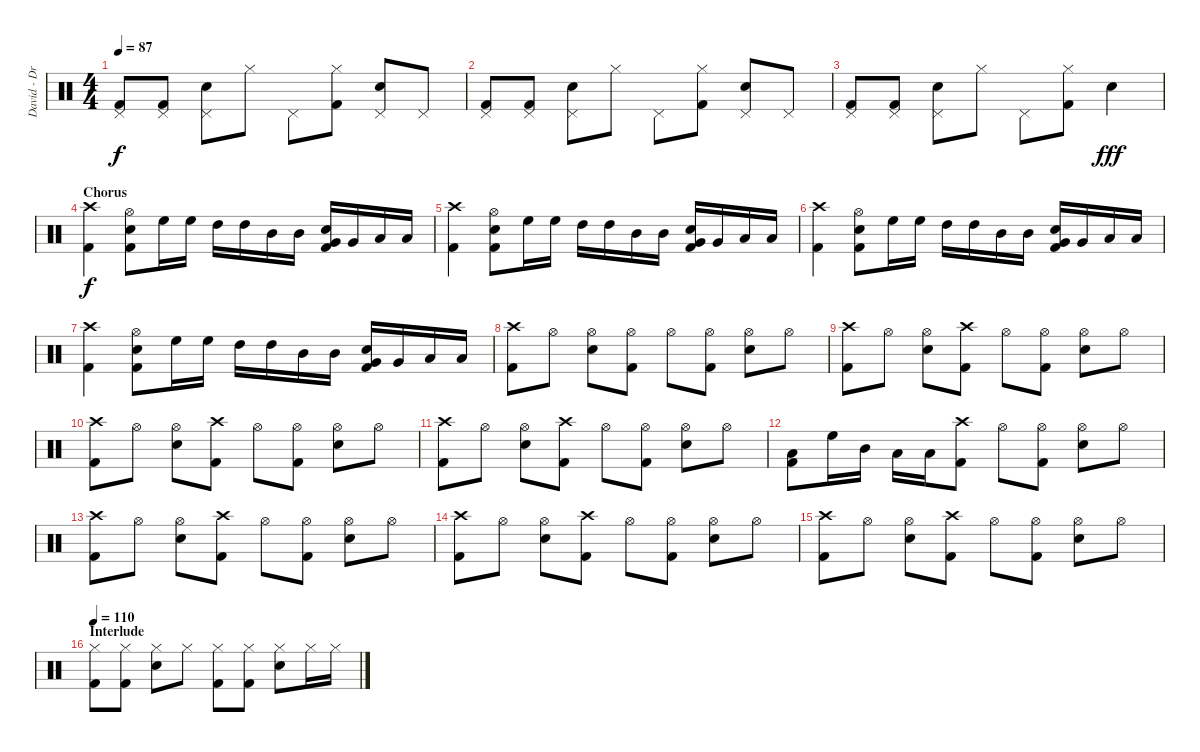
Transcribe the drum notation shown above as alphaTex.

\track ("David - Drums" "David - Dr") {instrument percussion}
\staff {score}
\articulation defaults
\ts (4 4)
\tempo 87
\clef neutral
\ks c
("Pedal Hi-Hat (hit)" "Kick (hit) 2").8{dy f} ("Pedal Hi-Hat (hit)" "Kick (hit) 2").8 ("Pedal Hi-Hat (hit)" "Electric Snare (hit)").8 "Hi-Hat (closed)".8 "Pedal Hi-Hat (hit)".8 ("Hi-Hat (closed)" "Kick (hit) 2").8 ("Pedal Hi-Hat (hit)" "Electric Snare (hit)").8 "Pedal Hi-Hat (hit)".8 |
("Pedal Hi-Hat (hit)" "Kick (hit) 2").8 ("Pedal Hi-Hat (hit)" "Kick (hit) 2").8 ("Pedal Hi-Hat (hit)" "Electric Snare (hit)").8 "Hi-Hat (closed)".8 "Pedal Hi-Hat (hit)".8 ("Hi-Hat (closed)" "Kick (hit) 2").8 ("Pedal Hi-Hat (hit)" "Electric Snare (hit)").8 "Pedal Hi-Hat (hit)".8 |
("Pedal Hi-Hat (hit)" "Kick (hit) 2").8 ("Pedal Hi-Hat (hit)" "Kick (hit) 2").8 ("Pedal Hi-Hat (hit)" "Electric Snare (hit)").8 "Hi-Hat (closed)".8 "Pedal Hi-Hat (hit)".8 ("Hi-Hat (closed)" "Kick (hit) 2").8 "Electric Snare (hit)".4{dy fff} |
\section ("" "Chorus")
("Crash high (hit)" "Kick (hit) 2").4{dy f} ("Hi-Hat (open)" "Kick (hit) 2" "Electric Snare (hit)").8 "High Floor Tom (hit)".16 "High Floor Tom (hit)".16 "High Tom (hit)".16 "High Tom (hit)".16 "Mid Tom (hit)".16 "Mid Tom (hit)".16 ("Very Low Tom (hit)" "Kick (hit) 2" "Electric Snare (hit)").16 "Very Low Tom (hit)".16 "Low Floor Tom (hit)".16 "Low Floor Tom (hit)".16 |
("Crash high (hit)" "Kick (hit) 2").4 ("Hi-Hat (open)" "Kick (hit) 2" "Electric Snare (hit)").8 "High Floor Tom (hit)".16 "High Floor Tom (hit)".16 "High Tom (hit)".16 "High Tom (hit)".16 "Mid Tom (hit)".16 "Mid Tom (hit)".16 ("Very Low Tom (hit)" "Kick (hit) 2" "Electric Snare (hit)").16 "Very Low Tom (hit)".16 "Low Floor Tom (hit)".16 "Low Floor Tom (hit)".16 |
("Crash high (hit)" "Kick (hit) 2").4 ("Hi-Hat (open)" "Kick (hit) 2" "Electric Snare (hit)").8 "High Floor Tom (hit)".16 "High Floor Tom (hit)".16 "High Tom (hit)".16 "High Tom (hit)".16 "Mid Tom (hit)".16 "Mid Tom (hit)".16 ("Very Low Tom (hit)" "Kick (hit) 2" "Electric Snare (hit)").16 "Very Low Tom (hit)".16 "Low Floor Tom (hit)".16 "Low Floor Tom (hit)".16 |
("Crash high (hit)" "Kick (hit) 2").4 ("Hi-Hat (open)" "Kick (hit) 2" "Electric Snare (hit)").8 "High Floor Tom (hit)".16 "High Floor Tom (hit)".16 "High Tom (hit)".16 "High Tom (hit)".16 "Mid Tom (hit)".16 "Mid Tom (hit)".16 ("Very Low Tom (hit)" "Kick (hit) 2" "Electric Snare (hit)").16 "Very Low Tom (hit)".16 "Low Floor Tom (hit)".16 "Low Floor Tom (hit)".16 |
("Crash high (hit)" "Kick (hit) 2").8 "Hi-Hat (open)".8 ("Hi-Hat (open)" "Electric Snare (hit)").8 ("Hi-Hat (open)" "Kick (hit) 2").8 "Hi-Hat (open)".8 ("Hi-Hat (open)" "Kick (hit) 2").8 ("Hi-Hat (open)" "Electric Snare (hit)").8 "Hi-Hat (open)".8 |
("Crash high (hit)" "Kick (hit) 2").8 "Hi-Hat (open)".8 ("Hi-Hat (open)" "Electric Snare (hit)").8 ("Crash high (hit)" "Kick (hit) 2").8 "Hi-Hat (open)".8 ("Hi-Hat (open)" "Kick (hit) 2").8 ("Hi-Hat (open)" "Electric Snare (hit)").8 "Hi-Hat (open)".8 |
("Crash high (hit)" "Kick (hit) 2").8 "Hi-Hat (open)".8 ("Hi-Hat (open)" "Electric Snare (hit)").8 ("Crash high (hit)" "Kick (hit) 2").8 "Hi-Hat (open)".8 ("Hi-Hat (open)" "Kick (hit) 2").8 ("Hi-Hat (open)" "Electric Snare (hit)").8 "Hi-Hat (open)".8 |
("Crash high (hit)" "Kick (hit) 2").8 "Hi-Hat (open)".8 ("Hi-Hat (open)" "Electric Snare (hit)").8 ("Crash high (hit)" "Kick (hit) 2").8 "Hi-Hat (open)".8 ("Hi-Hat (open)" "Kick (hit) 2").8 ("Hi-Hat (open)" "Electric Snare (hit)").8 "Hi-Hat (open)".8 |
("Low Floor Tom (hit)" "Kick (hit) 2").8 "High Floor Tom (hit)".16 "Mid Tom (hit)".16 "Low Tom (hit)".16 "Low Floor Tom (hit)".16 ("Crash high (hit)" "Kick (hit) 2").8 "Hi-Hat (open)".8 ("Hi-Hat (open)" "Kick (hit) 2").8 ("Hi-Hat (open)" "Electric Snare (hit)").8 "Hi-Hat (open)".8 |
("Crash high (hit)" "Kick (hit) 2").8 "Hi-Hat (open)".8 ("Hi-Hat (open)" "Electric Snare (hit)").8 ("Crash high (hit)" "Kick (hit) 2").8 "Hi-Hat (open)".8 ("Hi-Hat (open)" "Kick (hit) 2").8 ("Hi-Hat (open)" "Electric Snare (hit)").8 "Hi-Hat (open)".8 |
("Crash high (hit)" "Kick (hit) 2").8 "Hi-Hat (open)".8 ("Hi-Hat (open)" "Electric Snare (hit)").8 ("Crash high (hit)" "Kick (hit) 2").8 "Hi-Hat (open)".8 ("Hi-Hat (open)" "Kick (hit) 2").8 ("Hi-Hat (open)" "Electric Snare (hit)").8 "Hi-Hat (open)".8 |
("Crash high (hit)" "Kick (hit) 2").8 "Hi-Hat (open)".8 ("Hi-Hat (open)" "Electric Snare (hit)").8 ("Crash high (hit)" "Kick (hit) 2").8 "Hi-Hat (open)".8 ("Hi-Hat (open)" "Kick (hit) 2").8 ("Hi-Hat (open)" "Electric Snare (hit)").8 "Hi-Hat (open)".8 |
\section ("" "Interlude")
\tempo 110
("Hi-Hat (closed)" "Kick (hit) 2").8 ("Hi-Hat (closed)" "Kick (hit) 2").8 ("Hi-Hat (closed)" "Electric Snare (hit)").8 "Hi-Hat (closed)".8 ("Hi-Hat (closed)" "Kick (hit) 2").8 ("Hi-Hat (closed)" "Kick (hit) 2").8 ("Hi-Hat (closed)" "Electric Snare (hit)").8 "Hi-Hat (closed)".16 "Hi-Hat (closed)".16
